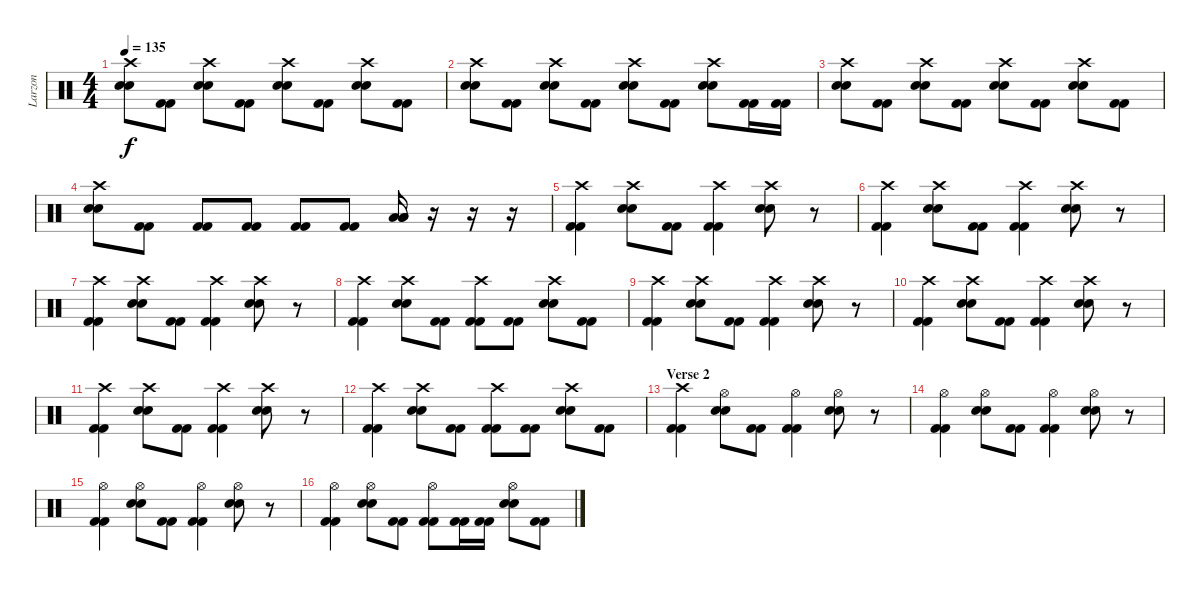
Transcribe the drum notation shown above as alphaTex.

\track ("Larzon" "Larzon") {instrument percussion}
\staff {score}
\articulation defaults
\ts (4 4)
\tempo 135
\clef neutral
\ks c
("Crash high (hit)" "Electric Snare (hit)" "Electric Snare (hit)").8{dy f} ("Kick (hit) 2" "Kick (hit) 2").8 ("Crash high (hit)" "Electric Snare (hit)" "Electric Snare (hit)").8 ("Kick (hit) 2" "Kick (hit) 2").8 ("Crash high (hit)" "Electric Snare (hit)" "Electric Snare (hit)").8 ("Kick (hit) 2" "Kick (hit) 2").8 ("Crash high (hit)" "Electric Snare (hit)" "Electric Snare (hit)").8 ("Kick (hit) 2" "Kick (hit) 2").8 |
("Crash high (hit)" "Electric Snare (hit)" "Electric Snare (hit)").8 ("Kick (hit) 2" "Kick (hit) 2").8 ("Crash high (hit)" "Electric Snare (hit)" "Electric Snare (hit)").8 ("Kick (hit) 2" "Kick (hit) 2").8 ("Crash high (hit)" "Electric Snare (hit)" "Electric Snare (hit)").8 ("Kick (hit) 2" "Kick (hit) 2").8 ("Crash high (hit)" "Electric Snare (hit)" "Electric Snare (hit)").8 ("Kick (hit) 2" "Kick (hit) 2").16 ("Kick (hit) 2" "Kick (hit) 2").16 |
("Crash high (hit)" "Electric Snare (hit)" "Electric Snare (hit)").8 ("Kick (hit) 2" "Kick (hit) 2").8 ("Crash high (hit)" "Electric Snare (hit)" "Electric Snare (hit)").8 ("Kick (hit) 2" "Kick (hit) 2").8 ("Crash high (hit)" "Electric Snare (hit)" "Electric Snare (hit)").8 ("Kick (hit) 2" "Kick (hit) 2").8 ("Crash high (hit)" "Electric Snare (hit)" "Electric Snare (hit)").8 ("Kick (hit) 2" "Kick (hit) 2").8 |
("Crash high (hit)" "Electric Snare (hit)" "Electric Snare (hit)").8 ("Kick (hit) 2" "Kick (hit) 2").8 ("Kick (hit) 2" "Kick (hit) 2").8 ("Kick (hit) 2" "Kick (hit) 2").8 ("Kick (hit) 2" "Kick (hit) 2").8 ("Kick (hit) 2" "Kick (hit) 2").8 ("Low Floor Tom (hit)" "Low Floor Tom (hit)" "Low Floor Tom (hit)").16 r.16 r.16 r.16 |
("Crash high (hit)" "Kick (hit) 2" "Kick (hit) 2").4 ("Crash high (hit)" "Electric Snare (hit)" "Electric Snare (hit)").8 ("Kick (hit) 2" "Kick (hit) 2").8 ("Crash high (hit)" "Kick (hit) 2" "Kick (hit) 2").4 ("Crash high (hit)" "Electric Snare (hit)" "Electric Snare (hit)").8 r.8 |
("Crash high (hit)" "Kick (hit) 2" "Kick (hit) 2").4 ("Crash high (hit)" "Electric Snare (hit)" "Electric Snare (hit)").8 ("Kick (hit) 2" "Kick (hit) 2").8 ("Crash high (hit)" "Kick (hit) 2" "Kick (hit) 2").4 ("Crash high (hit)" "Electric Snare (hit)" "Electric Snare (hit)").8 r.8 |
("Crash high (hit)" "Kick (hit) 2" "Kick (hit) 2").4 ("Crash high (hit)" "Electric Snare (hit)" "Electric Snare (hit)").8 ("Kick (hit) 2" "Kick (hit) 2").8 ("Crash high (hit)" "Kick (hit) 2" "Kick (hit) 2").4 ("Crash high (hit)" "Electric Snare (hit)" "Electric Snare (hit)").8 r.8 |
("Crash high (hit)" "Kick (hit) 2" "Kick (hit) 2").4 ("Crash high (hit)" "Electric Snare (hit)" "Electric Snare (hit)").8 ("Kick (hit) 2" "Kick (hit) 2").8 ("Crash high (hit)" "Kick (hit) 2" "Kick (hit) 2").8 ("Kick (hit) 2" "Kick (hit) 2").8 ("Crash high (hit)" "Electric Snare (hit)" "Electric Snare (hit)").8 ("Kick (hit) 2" "Kick (hit) 2").8 |
("Crash high (hit)" "Kick (hit) 2" "Kick (hit) 2").4 ("Crash high (hit)" "Electric Snare (hit)" "Electric Snare (hit)").8 ("Kick (hit) 2" "Kick (hit) 2").8 ("Crash high (hit)" "Kick (hit) 2" "Kick (hit) 2").4 ("Crash high (hit)" "Electric Snare (hit)" "Electric Snare (hit)").8 r.8 |
("Crash high (hit)" "Kick (hit) 2" "Kick (hit) 2").4 ("Crash high (hit)" "Electric Snare (hit)" "Electric Snare (hit)").8 ("Kick (hit) 2" "Kick (hit) 2").8 ("Crash high (hit)" "Kick (hit) 2" "Kick (hit) 2").4 ("Crash high (hit)" "Electric Snare (hit)" "Electric Snare (hit)").8 r.8 |
("Crash high (hit)" "Kick (hit) 2" "Kick (hit) 2").4 ("Crash high (hit)" "Electric Snare (hit)" "Electric Snare (hit)").8 ("Kick (hit) 2" "Kick (hit) 2").8 ("Crash high (hit)" "Kick (hit) 2" "Kick (hit) 2").4 ("Crash high (hit)" "Electric Snare (hit)" "Electric Snare (hit)").8 r.8 |
("Crash high (hit)" "Kick (hit) 2" "Kick (hit) 2").4 ("Crash high (hit)" "Electric Snare (hit)" "Electric Snare (hit)").8 ("Kick (hit) 2" "Kick (hit) 2").8 ("Crash high (hit)" "Kick (hit) 2" "Kick (hit) 2").8 ("Kick (hit) 2" "Kick (hit) 2").8 ("Crash high (hit)" "Electric Snare (hit)" "Electric Snare (hit)").8 ("Kick (hit) 2" "Kick (hit) 2").8 |
\section ("" "Verse 2")
("Crash high (hit)" "Kick (hit) 2" "Kick (hit) 2").4 ("Hi-Hat (open)" "Electric Snare (hit)" "Electric Snare (hit)").8 ("Kick (hit) 2" "Kick (hit) 2").8 ("Hi-Hat (open)" "Kick (hit) 2" "Kick (hit) 2").4 ("Hi-Hat (open)" "Electric Snare (hit)" "Electric Snare (hit)").8 r.8 |
("Hi-Hat (open)" "Kick (hit) 2" "Kick (hit) 2").4 ("Hi-Hat (open)" "Electric Snare (hit)" "Electric Snare (hit)").8 ("Kick (hit) 2" "Kick (hit) 2").8 ("Hi-Hat (open)" "Kick (hit) 2" "Kick (hit) 2").4 ("Hi-Hat (open)" "Electric Snare (hit)" "Electric Snare (hit)").8 r.8 |
("Hi-Hat (open)" "Kick (hit) 2" "Kick (hit) 2").4 ("Hi-Hat (open)" "Electric Snare (hit)" "Electric Snare (hit)").8 ("Kick (hit) 2" "Kick (hit) 2").8 ("Hi-Hat (open)" "Kick (hit) 2" "Kick (hit) 2").4 ("Hi-Hat (open)" "Electric Snare (hit)" "Electric Snare (hit)").8 r.8 |
("Hi-Hat (open)" "Kick (hit) 2" "Kick (hit) 2").4 ("Hi-Hat (open)" "Electric Snare (hit)" "Electric Snare (hit)").8 ("Kick (hit) 2" "Kick (hit) 2").8 ("Hi-Hat (open)" "Kick (hit) 2" "Kick (hit) 2").8 ("Kick (hit) 2" "Kick (hit) 2").16 ("Kick (hit) 2" "Kick (hit) 2").16 ("Hi-Hat (open)" "Electric Snare (hit)" "Electric Snare (hit)").8 ("Kick (hit) 2" "Kick (hit) 2").8
